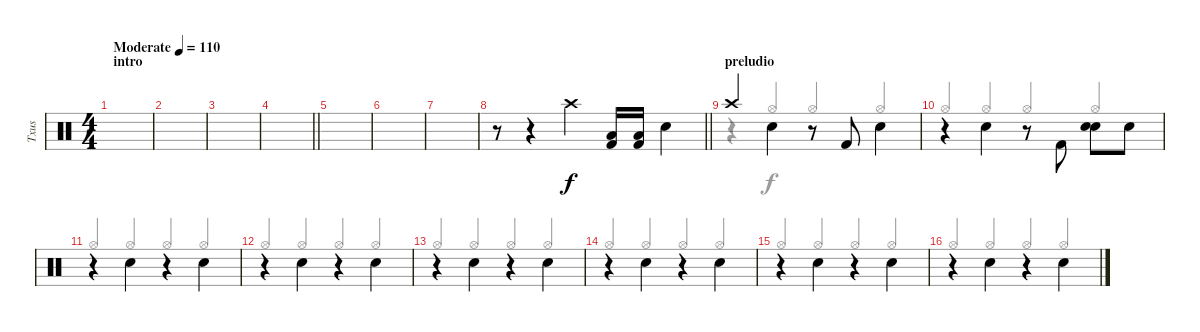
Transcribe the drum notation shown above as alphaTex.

\track ("Txus" "Txus") {instrument percussion}
\staff {score}
\articulation defaults
\voice
\ts (4 4)
\section ("" "intro")
\tempo (110 "Moderate")
\clef neutral
\ks c
|
|
|
\barLineRight lightlight
|
|
|
|
\barLineRight lightlight
r.8{volume 16} r.4 "Crash high (hit)".4 ("Low Floor Tom (hit)" "Kick (hit) 2").16 ("Low Floor Tom (hit)" "Kick (hit) 2").16 "Snare (hit) 2".4 |
\section ("" "preludio")
"Crash high (hit)".4 "Snare (hit) 2".4{beam Down} r.8 "Kick (hit) 2".8 "Snare (hit) 2".4{beam Down} |
r.4 "Snare (hit) 2".4{beam Down} r.8 "Kick (hit) 2".8{beam Down} ("Snare (hit) 2" "Snare (hit) 2").8{beam Down} "Snare (hit) 2".8 |
r.4 "Snare (hit) 2".4{beam Down} r.4 "Snare (hit) 2".4{beam Down} |
r.4 "Snare (hit) 2".4{beam Down} r.4 "Snare (hit) 2".4{beam Down} |
r.4 "Snare (hit) 2".4{beam Down} r.4 "Snare (hit) 2".4{beam Down} |
r.4 "Snare (hit) 2".4{beam Down} r.4 "Snare (hit) 2".4{beam Down} |
r.4 "Snare (hit) 2".4{beam Down} r.4 "Snare (hit) 2".4{beam Down} |
r.4 "Snare (hit) 2".4{beam Down} r.4 "Snare (hit) 2".4{beam Down}
\voice
\clef neutral
\ottava regular
\simile none
\ks c
|
|
|
\barLineRight lightlight
|
|
|
|
\barLineRight lightlight
|
r.4{beam Up} "Hi-Hat (open)".4{beam Up} "Hi-Hat (open)".4{beam Up} "Hi-Hat (open)".4{beam Up} |
"Hi-Hat (open)".4{beam Up} "Hi-Hat (open)".4{beam Up} "Hi-Hat (open)".4{beam Up} "Hi-Hat (open)".4{beam Up} |
"Hi-Hat (open)".4{beam Up} "Hi-Hat (open)".4{beam Up} "Hi-Hat (open)".4{beam Up} "Hi-Hat (open)".4{beam Up} |
"Hi-Hat (open)".4{beam Up} "Hi-Hat (open)".4{beam Up} "Hi-Hat (open)".4{beam Up} "Hi-Hat (open)".4{beam Up} |
"Hi-Hat (open)".4{beam Up} "Hi-Hat (open)".4{beam Up} "Hi-Hat (open)".4{beam Up} "Hi-Hat (open)".4{beam Up} |
"Hi-Hat (open)".4{beam Up} "Hi-Hat (open)".4{beam Up} "Hi-Hat (open)".4{beam Up} "Hi-Hat (open)".4{beam Up} |
"Hi-Hat (open)".4{beam Up} "Hi-Hat (open)".4{beam Up} "Hi-Hat (open)".4{beam Up} "Hi-Hat (open)".4{beam Up} |
"Hi-Hat (open)".4{beam Up} "Hi-Hat (open)".4{beam Up} "Hi-Hat (open)".4{beam Up} "Hi-Hat (open)".4{beam Up}
